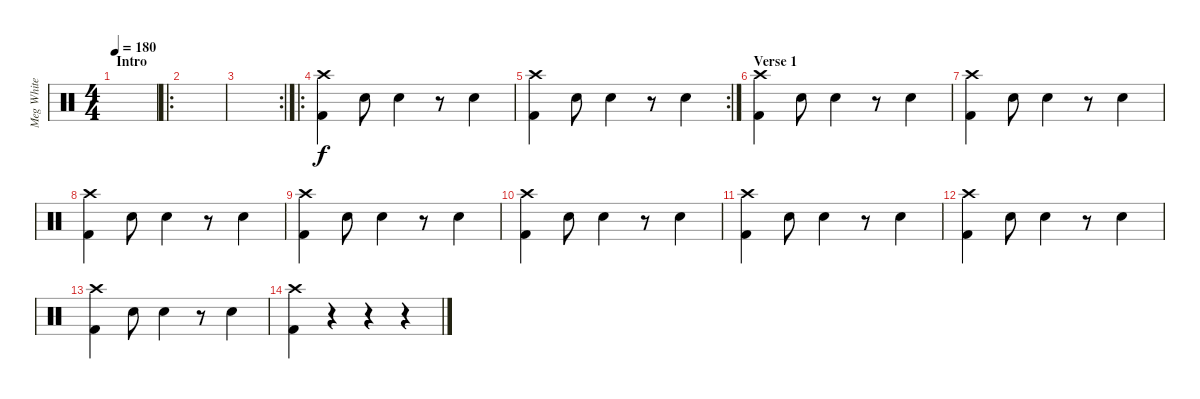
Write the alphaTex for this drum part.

\track ("Meg White" "Meg White") {instrument percussion}
\staff {score}
\articulation defaults
\ts (4 4)
\section ("" "Intro")
\tempo 180
\clef neutral
\ks c
|
\ro
|
\rc 2
|
\ro
("Kick (hit) 2" "Crash high (hit)").4 "Snare (hit) 2".8 "Snare (hit) 2".4 r.8 "Snare (hit) 2".4 |
\rc 2
("Kick (hit) 2" "Crash high (hit)").4 "Snare (hit) 2".8 "Snare (hit) 2".4 r.8 "Snare (hit) 2".4 |
\section ("" "Verse 1")
("Kick (hit) 2" "Crash high (hit)").4 "Snare (hit) 2".8 "Snare (hit) 2".4 r.8 "Snare (hit) 2".4 |
("Kick (hit) 2" "Crash high (hit)").4 "Snare (hit) 2".8 "Snare (hit) 2".4 r.8 "Snare (hit) 2".4 |
("Kick (hit) 2" "Crash high (hit)").4 "Snare (hit) 2".8 "Snare (hit) 2".4 r.8 "Snare (hit) 2".4 |
("Kick (hit) 2" "Crash high (hit)").4 "Snare (hit) 2".8 "Snare (hit) 2".4 r.8 "Snare (hit) 2".4 |
("Kick (hit) 2" "Crash high (hit)").4 "Snare (hit) 2".8 "Snare (hit) 2".4 r.8 "Snare (hit) 2".4 |
("Kick (hit) 2" "Crash high (hit)").4 "Snare (hit) 2".8 "Snare (hit) 2".4 r.8 "Snare (hit) 2".4 |
("Kick (hit) 2" "Crash high (hit)").4 "Snare (hit) 2".8 "Snare (hit) 2".4 r.8 "Snare (hit) 2".4 |
("Kick (hit) 2" "Crash high (hit)").4 "Snare (hit) 2".8 "Snare (hit) 2".4 r.8 "Snare (hit) 2".4 |
("Kick (hit) 2" "Crash high (hit)").4 r.4 r.4 r.4
